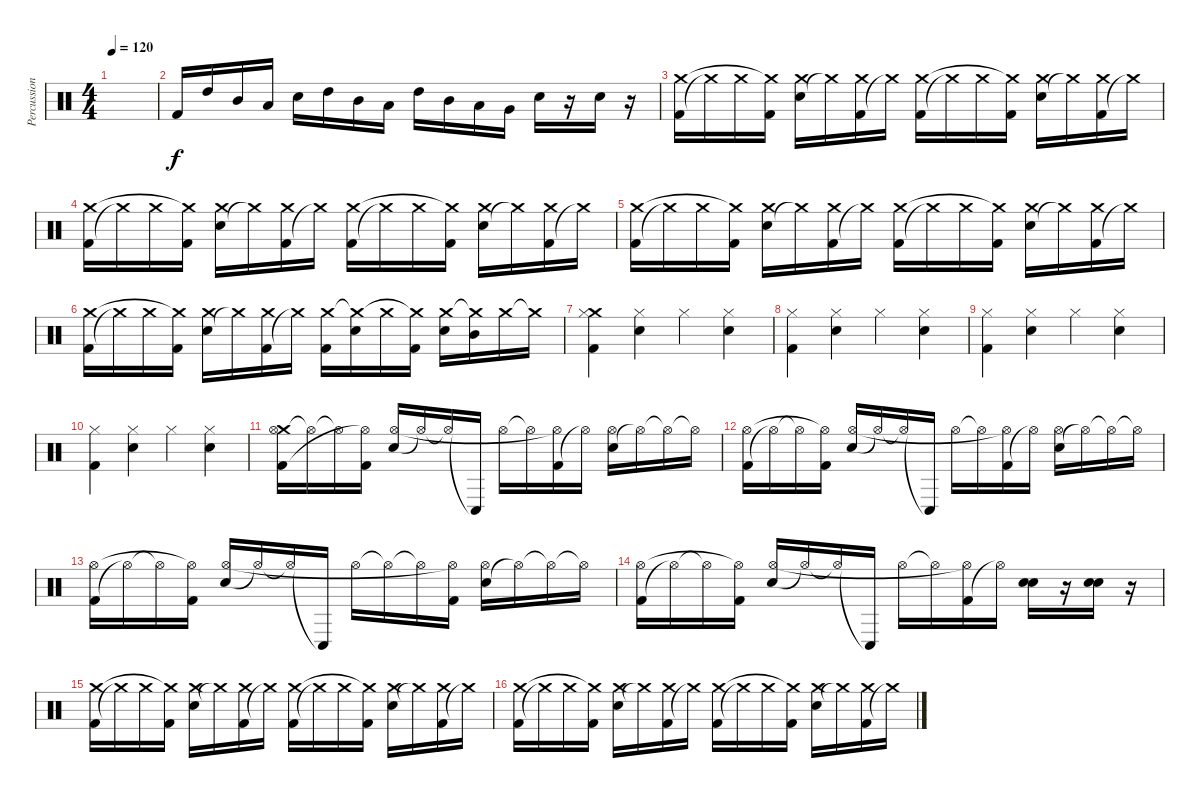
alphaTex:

\track ("Percussions" "Percussion") {instrument percussion}
\staff {score}
\articulation defaults
\ts (4 4)
\tempo 120
\clef neutral
\ks c
|
"Kick (hit) 2".16 "High Tom (hit)".16 "Mid Tom (hit)".16 "Low Tom (hit)".16 "Electric Snare (hit)".16 "High Tom (hit)".16 "Mid Tom (hit)".16 "Low Tom (hit)".16 "High Tom (hit)".16 "Mid Tom (hit)".16 "Low Tom (hit)".16 "Very Low Tom (hit)".16 "Electric Snare (hit)".16 r.16 "Electric Snare (hit)".16 r.16 |
("Kick (hit) 2" "Crash medium (hit)").16 "Crash medium (hit)"{t}.16 "Crash medium (hit)".16 ("Kick (hit) 2" "Crash medium (hit)"{t}).16 ("Electric Snare (hit)" "Crash medium (hit)").16 "Crash medium (hit)"{t}.16 ("Kick (hit) 2" "Crash medium (hit)").16 "Crash medium (hit)"{t}.16 ("Kick (hit) 2" "Crash medium (hit)").16 "Crash medium (hit)"{t}.16 "Crash medium (hit)".16 ("Kick (hit) 2" "Crash medium (hit)"{t}).16 ("Electric Snare (hit)" "Crash medium (hit)").16 "Crash medium (hit)"{t}.16 ("Kick (hit) 2" "Crash medium (hit)").16 "Crash medium (hit)"{t}.16 |
("Kick (hit) 2" "Crash medium (hit)").16 "Crash medium (hit)"{t}.16 "Crash medium (hit)".16 ("Kick (hit) 2" "Crash medium (hit)"{t}).16 ("Electric Snare (hit)" "Crash medium (hit)").16 "Crash medium (hit)"{t}.16 ("Kick (hit) 2" "Crash medium (hit)").16 "Crash medium (hit)"{t}.16 ("Kick (hit) 2" "Crash medium (hit)").16 "Crash medium (hit)"{t}.16 "Crash medium (hit)".16 ("Kick (hit) 2" "Crash medium (hit)"{t}).16 ("Electric Snare (hit)" "Crash medium (hit)").16 "Crash medium (hit)"{t}.16 ("Kick (hit) 2" "Crash medium (hit)").16 "Crash medium (hit)"{t}.16 |
("Kick (hit) 2" "Crash medium (hit)").16 "Crash medium (hit)"{t}.16 "Crash medium (hit)".16 ("Kick (hit) 2" "Crash medium (hit)"{t}).16 ("Electric Snare (hit)" "Crash medium (hit)").16 "Crash medium (hit)"{t}.16 ("Kick (hit) 2" "Crash medium (hit)").16 "Crash medium (hit)"{t}.16 ("Kick (hit) 2" "Crash medium (hit)").16 "Crash medium (hit)"{t}.16 "Crash medium (hit)".16 ("Kick (hit) 2" "Crash medium (hit)"{t}).16 ("Electric Snare (hit)" "Crash medium (hit)").16 "Crash medium (hit)"{t}.16 ("Kick (hit) 2" "Crash medium (hit)").16 "Crash medium (hit)"{t}.16 |
("Kick (hit) 2" "Crash medium (hit)").16 "Crash medium (hit)"{t}.16 "Crash medium (hit)".16 ("Kick (hit) 2" "Crash medium (hit)"{t}).16 ("Electric Snare (hit)" "Crash medium (hit)").16 "Crash medium (hit)"{t}.16 ("Kick (hit) 2" "Crash medium (hit)").16 "Crash medium (hit)"{t}.16 ("Kick (hit) 2" "Crash medium (hit)").16 ("Electric Snare (hit)" "Crash medium (hit)"{t}).16 "Crash medium (hit)".16 ("Kick (hit) 2" "Crash medium (hit)"{t}).16 ("Electric Snare (hit)" "Crash medium (hit)").16 ("Mid Tom (hit)" "Crash medium (hit)"{t}).16 "Crash medium (hit)".16 "Crash medium (hit)"{t}.16 |
("Crash medium (hit)" "Kick (hit) 2" "Hi-Hat (closed)").4 ("Electric Snare (hit)" "Hi-Hat (closed)").4 "Hi-Hat (closed)".4 ("Electric Snare (hit)" "Hi-Hat (closed)").4 |
("Kick (hit) 2" "Hi-Hat (closed)").4 ("Electric Snare (hit)" "Hi-Hat (closed)").4 "Hi-Hat (closed)".4 ("Electric Snare (hit)" "Hi-Hat (closed)").4 |
("Kick (hit) 2" "Hi-Hat (closed)").4 ("Electric Snare (hit)" "Hi-Hat (closed)").4 "Hi-Hat (closed)".4 ("Electric Snare (hit)" "Hi-Hat (closed)").4 |
("Kick (hit) 2" "Hi-Hat (closed)").4 ("Electric Snare (hit)" "Hi-Hat (closed)").4 "Hi-Hat (closed)".4 ("Electric Snare (hit)" "Hi-Hat (closed)").4 |
("Crash medium (hit)" "Kick (hit) 2" "Hi-Hat (open)").16 "Hi-Hat (open)"{t}.16 "Hi-Hat (open)"{t}.16 ("Kick (hit) 2" "Hi-Hat (open)"{t}).16 ("Electric Snare (hit)" "Hi-Hat (open)").16 "Hi-Hat (open)"{t}.16 "Hi-Hat (open)"{t}.16 "Conga low (hit)"{t}.16 "Hi-Hat (open)".16 "Hi-Hat (open)"{t}.16 ("Kick (hit) 2" "Hi-Hat (open)"{t}).16 "Hi-Hat (open)"{t}.16 ("Electric Snare (hit)" "Hi-Hat (open)").16 "Hi-Hat (open)"{t}.16 "Hi-Hat (open)"{t}.16 "Hi-Hat (open)"{t}.16 |
("Kick (hit) 2" "Hi-Hat (open)").16 "Hi-Hat (open)"{t}.16 "Hi-Hat (open)"{t}.16 ("Kick (hit) 2" "Hi-Hat (open)"{t}).16 ("Electric Snare (hit)" "Hi-Hat (open)").16 "Hi-Hat (open)"{t}.16 "Hi-Hat (open)"{t}.16 "Conga low (hit)"{t}.16 "Hi-Hat (open)".16 "Hi-Hat (open)"{t}.16 ("Kick (hit) 2" "Hi-Hat (open)"{t}).16 "Hi-Hat (open)"{t}.16 ("Electric Snare (hit)" "Hi-Hat (open)").16 "Hi-Hat (open)"{t}.16 "Hi-Hat (open)"{t}.16 "Hi-Hat (open)"{t}.16 |
("Kick (hit) 2" "Hi-Hat (open)").16 "Hi-Hat (open)"{t}.16 "Hi-Hat (open)"{t}.16 ("Kick (hit) 2" "Hi-Hat (open)"{t}).16 ("Electric Snare (hit)" "Hi-Hat (open)").16 "Hi-Hat (open)"{t}.16 "Hi-Hat (open)"{t}.16 "Conga low (hit)"{t}.16 "Hi-Hat (open)".16 "Hi-Hat (open)"{t}.16 "Hi-Hat (open)"{t}.16 ("Kick (hit) 2" "Hi-Hat (open)"{t}).16 ("Electric Snare (hit)" "Hi-Hat (open)").16 "Hi-Hat (open)"{t}.16 "Hi-Hat (open)"{t}.16 "Hi-Hat (open)"{t}.16 |
("Kick (hit) 2" "Hi-Hat (open)").16 "Hi-Hat (open)"{t}.16 "Hi-Hat (open)"{t}.16 ("Kick (hit) 2" "Hi-Hat (open)"{t}).16 ("Electric Snare (hit)" "Hi-Hat (open)").16 "Hi-Hat (open)"{t}.16 "Hi-Hat (open)"{t}.16 "Conga low (hit)"{t}.16 "Hi-Hat (open)".16 "Hi-Hat (open)"{t}.16 ("Kick (hit) 2" "Hi-Hat (open)"{t}).16 "Hi-Hat (open)"{t}.16 ("Electric Snare (hit)" "Electric Snare (hit)").16 r.16 ("Electric Snare (hit)" "Electric Snare (hit)").16 r.16 |
("Kick (hit) 2" "Crash medium (hit)").16 "Crash medium (hit)"{t}.16 "Crash medium (hit)".16 ("Kick (hit) 2" "Crash medium (hit)"{t}).16 ("Electric Snare (hit)" "Crash medium (hit)").16 "Crash medium (hit)"{t}.16 ("Kick (hit) 2" "Crash medium (hit)").16 "Crash medium (hit)"{t}.16 ("Kick (hit) 2" "Crash medium (hit)").16 "Crash medium (hit)"{t}.16 "Crash medium (hit)".16 ("Kick (hit) 2" "Crash medium (hit)"{t}).16 ("Electric Snare (hit)" "Crash medium (hit)").16 "Crash medium (hit)"{t}.16 ("Kick (hit) 2" "Crash medium (hit)").16 "Crash medium (hit)"{t}.16 |
("Kick (hit) 2" "Crash medium (hit)").16 "Crash medium (hit)"{t}.16 "Crash medium (hit)".16 ("Kick (hit) 2" "Crash medium (hit)"{t}).16 ("Electric Snare (hit)" "Crash medium (hit)").16 "Crash medium (hit)"{t}.16 ("Kick (hit) 2" "Crash medium (hit)").16 "Crash medium (hit)"{t}.16 ("Kick (hit) 2" "Crash medium (hit)").16 "Crash medium (hit)"{t}.16 "Crash medium (hit)".16 ("Kick (hit) 2" "Crash medium (hit)"{t}).16 ("Electric Snare (hit)" "Crash medium (hit)").16 "Crash medium (hit)"{t}.16 ("Kick (hit) 2" "Crash medium (hit)").16 "Crash medium (hit)"{t}.16
